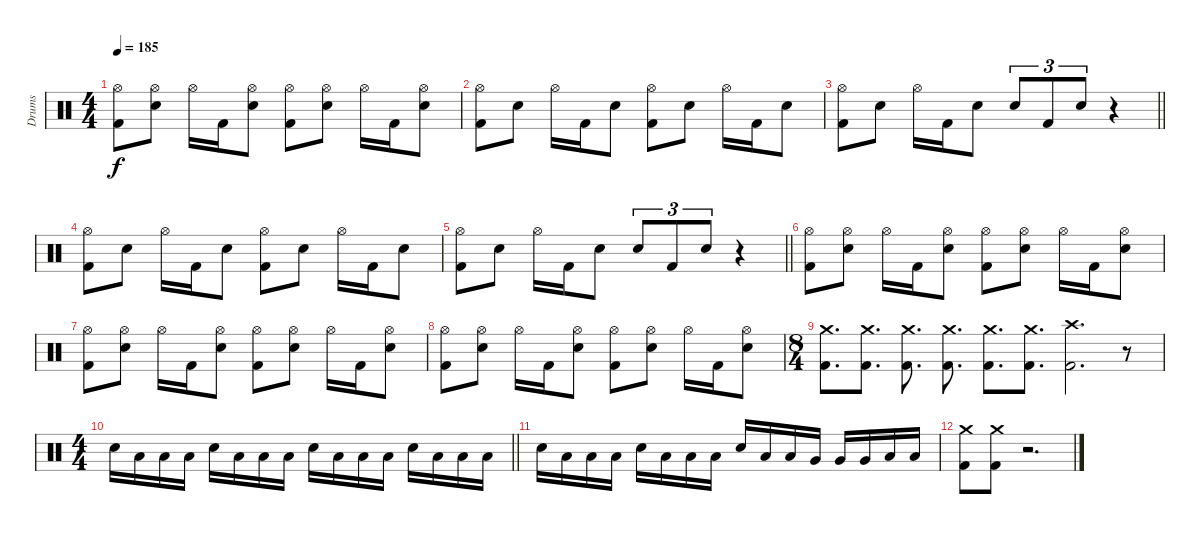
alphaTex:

\track ("Drums" "Drums") {instrument percussion}
\staff {score}
\articulation defaults
\ts (4 4)
\tempo 185
\clef neutral
\ks c
("Hi-Hat (open)" "Kick (hit) 2").8{dy f} ("Hi-Hat (open)" "Electric Snare (hit)").8 "Hi-Hat (open)".16 "Kick (hit) 2".16 ("Hi-Hat (open)" "Electric Snare (hit)").8 ("Hi-Hat (open)" "Kick (hit) 2").8 ("Hi-Hat (open)" "Electric Snare (hit)").8 "Hi-Hat (open)".16 "Kick (hit) 2".16 ("Hi-Hat (open)" "Electric Snare (hit)").8 |
("Hi-Hat (open)" "Kick (hit) 2").8 "Electric Snare (hit)".8 "Hi-Hat (open)".16 "Kick (hit) 2".16 "Electric Snare (hit)".8 ("Hi-Hat (open)" "Kick (hit) 2").8 "Electric Snare (hit)".8 "Hi-Hat (open)".16 "Kick (hit) 2".16 "Electric Snare (hit)".8 |
\barLineRight lightlight
("Hi-Hat (open)" "Kick (hit) 2").8 "Electric Snare (hit)".8 "Hi-Hat (open)".16 "Kick (hit) 2".16 "Electric Snare (hit)".8 "Electric Snare (hit)".8{tu (3 2)} "Kick (hit) 2".8{tu (3 2)} "Electric Snare (hit)".8{tu (3 2)} r.4 |
("Hi-Hat (open)" "Kick (hit) 2").8 "Electric Snare (hit)".8 "Hi-Hat (open)".16 "Kick (hit) 2".16 "Electric Snare (hit)".8 ("Hi-Hat (open)" "Kick (hit) 2").8 "Electric Snare (hit)".8 "Hi-Hat (open)".16 "Kick (hit) 2".16 "Electric Snare (hit)".8 |
\barLineRight lightlight
("Hi-Hat (open)" "Kick (hit) 2").8 "Electric Snare (hit)".8 "Hi-Hat (open)".16 "Kick (hit) 2".16 "Electric Snare (hit)".8 "Electric Snare (hit)".8{tu (3 2)} "Kick (hit) 2".8{tu (3 2)} "Electric Snare (hit)".8{tu (3 2)} r.4 |
("Hi-Hat (open)" "Kick (hit) 2").8 ("Hi-Hat (open)" "Electric Snare (hit)").8 "Hi-Hat (open)".16 "Kick (hit) 2".16 ("Hi-Hat (open)" "Electric Snare (hit)").8 ("Hi-Hat (open)" "Kick (hit) 2").8 ("Hi-Hat (open)" "Electric Snare (hit)").8 "Hi-Hat (open)".16 "Kick (hit) 2".16 ("Hi-Hat (open)" "Electric Snare (hit)").8 |
("Hi-Hat (open)" "Kick (hit) 2").8 ("Hi-Hat (open)" "Electric Snare (hit)").8 "Hi-Hat (open)".16 "Kick (hit) 2".16 ("Hi-Hat (open)" "Electric Snare (hit)").8 ("Hi-Hat (open)" "Kick (hit) 2").8 ("Hi-Hat (open)" "Electric Snare (hit)").8 "Hi-Hat (open)".16 "Kick (hit) 2".16 ("Hi-Hat (open)" "Electric Snare (hit)").8 |
("Hi-Hat (open)" "Kick (hit) 2").8 ("Hi-Hat (open)" "Electric Snare (hit)").8 "Hi-Hat (open)".16 "Kick (hit) 2".16 ("Hi-Hat (open)" "Electric Snare (hit)").8 ("Hi-Hat (open)" "Kick (hit) 2").8 ("Hi-Hat (open)" "Electric Snare (hit)").8 "Hi-Hat (open)".16 "Kick (hit) 2".16 ("Hi-Hat (open)" "Electric Snare (hit)").8 |
\ts (8 4)
("Crash medium (hit)" "Kick (hit) 2").8{d} ("Crash medium (hit)" "Kick (hit) 2").8{d} ("Crash medium (hit)" "Kick (hit) 2").8{d} ("Crash medium (hit)" "Kick (hit) 2").8{d} ("Crash medium (hit)" "Kick (hit) 2").8{d} ("Crash medium (hit)" "Kick (hit) 2").8{d} ("Crash high (hit)" "Kick (hit) 2").2{d} r.8 |
\ts (4 4)
\barLineRight lightlight "Electric Snare (hit)".16 "Low Tom (hit)".16 "Low Tom (hit)".16 "Low Tom (hit)".16 "Electric Snare (hit)".16 "Low Tom (hit)".16 "Low Tom (hit)".16 "Low Tom (hit)".16 "Electric Snare (hit)".16 "Low Tom (hit)".16 "Low Tom (hit)".16 "Low Tom (hit)".16 "Electric Snare (hit)".16 "Low Tom (hit)".16 "Low Tom (hit)".16 "Low Tom (hit)".16
|
"Electric Snare (hit)".16 "Low Tom (hit)".16 "Low Tom (hit)".16 "Low Tom (hit)".16 "Electric Snare (hit)".16 "Low Tom (hit)".16 "Low Tom (hit)".16 "Low Tom (hit)".16 "Electric Snare (hit)".16 "Low Tom (hit)".16 "Low Tom (hit)".16 "Very Low Tom (hit)".16 "Very Low Tom (hit)".16 "Very Low Tom (hit)".16 "Low Floor Tom (hit)".16 "Low Floor Tom (hit)".16 |
("Crash medium (hit)" "Kick (hit) 2").8 ("Crash medium (hit)" "Kick (hit) 2").8 r.2{d}
